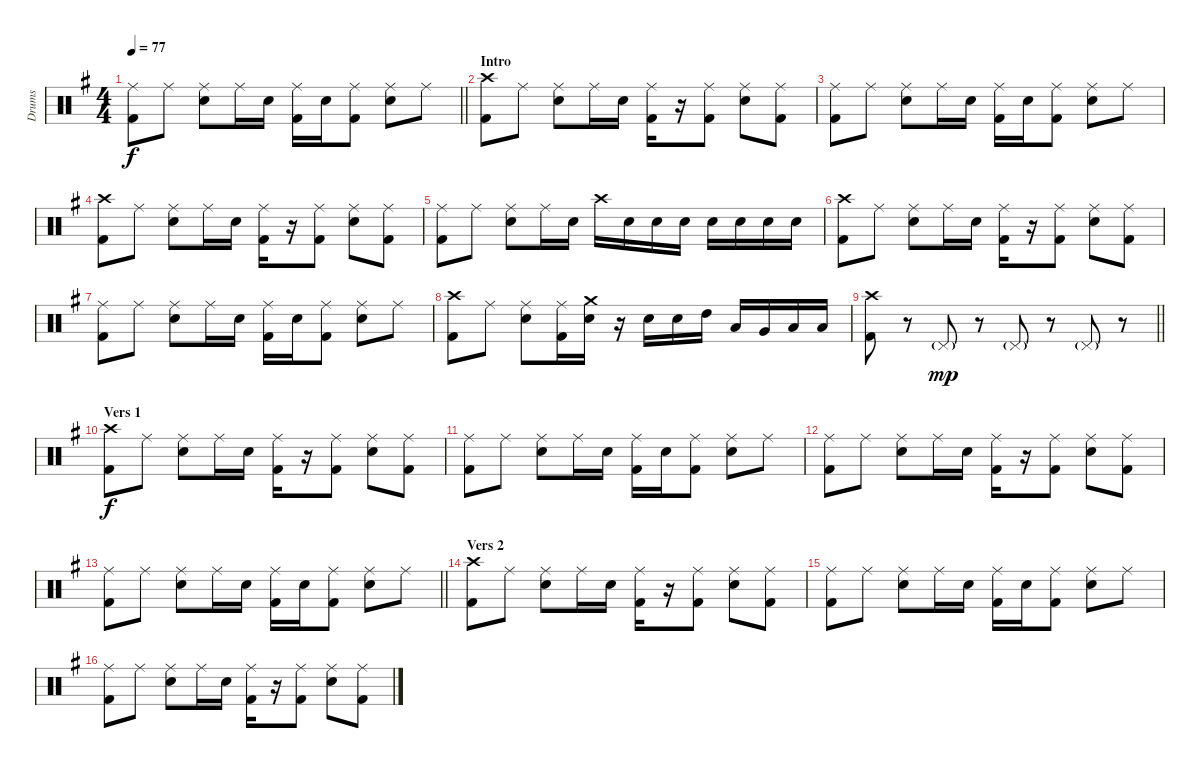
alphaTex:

\track ("Drums" "Drums") {instrument percussion}
\staff {score}
\articulation defaults
\ts (4 4)
\section ("" "")
\tempo 77
\clef neutral
\barLineRight lightlight
\ks eminor
("Ride (middle)" "Kick (hit) 2").8{dy f} "Ride (middle)".8 ("Ride (middle)" "Electric Snare (hit)").8 "Ride (middle)".16 "Electric Snare (hit)".16 ("Ride (middle)" "Kick (hit) 2").16 "Electric Snare (hit)".16 ("Ride (middle)" "Kick (hit) 2").8 ("Ride (middle)" "Electric Snare (hit)").8 "Ride (middle)".8 |
\section ("" "Intro")
("Crash high (hit)" "Kick (hit) 2").8 "Ride (middle)".8 ("Ride (middle)" "Electric Snare (hit)").8 "Ride (middle)".16 "Electric Snare (hit)".16 ("Ride (middle)" "Kick (hit) 2").16 r.16 ("Ride (middle)" "Kick (hit) 2").8 ("Ride (middle)" "Electric Snare (hit)").8 ("Ride (middle)" "Kick (hit) 2").8 |
("Ride (middle)" "Kick (hit) 2").8 "Ride (middle)".8 ("Ride (middle)" "Electric Snare (hit)").8 "Ride (middle)".16 "Electric Snare (hit)".16 ("Ride (middle)" "Kick (hit) 2").16 "Electric Snare (hit)".16 ("Ride (middle)" "Kick (hit) 2").8 ("Ride (middle)" "Electric Snare (hit)").8 "Ride (middle)".8 |
("Crash high (hit)" "Kick (hit) 2").8 "Ride (middle)".8 ("Ride (middle)" "Electric Snare (hit)").8 "Ride (middle)".16 "Electric Snare (hit)".16 ("Ride (middle)" "Kick (hit) 2").16 r.16 ("Ride (middle)" "Kick (hit) 2").8 ("Ride (middle)" "Electric Snare (hit)").8 ("Ride (middle)" "Kick (hit) 2").8 |
("Ride (middle)" "Kick (hit) 2").8 "Ride (middle)".8 ("Ride (middle)" "Electric Snare (hit)").8 "Ride (middle)".16 "Electric Snare (hit)".16 "Crash high (hit)".16 "Electric Snare (hit)".16 "Electric Snare (hit)".16 "Electric Snare (hit)".16 "Electric Snare (hit)".16 "Electric Snare (hit)".16 "Electric Snare (hit)".16 "Electric Snare (hit)".16 |
("Crash high (hit)" "Kick (hit) 2").8 "Ride (middle)".8 ("Ride (middle)" "Electric Snare (hit)").8 "Ride (middle)".16 "Electric Snare (hit)".16 ("Ride (middle)" "Kick (hit) 2").16 r.16 ("Ride (middle)" "Kick (hit) 2").8 ("Ride (middle)" "Electric Snare (hit)").8 ("Ride (middle)" "Kick (hit) 2").8 |
("Ride (middle)" "Kick (hit) 2").8 "Ride (middle)".8 ("Ride (middle)" "Electric Snare (hit)").8 "Ride (middle)".16 "Electric Snare (hit)".16 ("Ride (middle)" "Kick (hit) 2").16 "Electric Snare (hit)".16 ("Ride (middle)" "Kick (hit) 2").8 ("Ride (middle)" "Electric Snare (hit)").8 "Ride (middle)".8 |
("Crash high (hit)" "Kick (hit) 2").8 "Ride (middle)".8 ("Ride (middle)" "Electric Snare (hit)").8 ("Ride (middle)" "Kick (hit) 2").16 ("Crash medium (hit)" "Electric Snare (hit)").16 r.16 "Electric Snare (hit)".16 "Electric Snare (hit)".16 "High Tom (hit)".16 "Low Tom (hit)".16 "Very Low Tom (hit)".16 "Low Floor Tom (hit)".16 "Low Floor Tom (hit)".16 |
\barLineRight lightlight
("Crash high (hit)" "Kick (hit) 2").8 r.8 "Pedal Hi-Hat (hit)"{g}.8{dy mp} r.8 "Pedal Hi-Hat (hit)"{g}.8 r.8 "Pedal Hi-Hat (hit)"{g}.8 r.8 |
\section ("" "Vers 1")
("Crash high (hit)" "Kick (hit) 2").8{dy f} "Ride (middle)".8 ("Ride (middle)" "Electric Snare (hit)").8 "Ride (middle)".16 "Electric Snare (hit)".16 ("Ride (middle)" "Kick (hit) 2").16 r.16 ("Ride (middle)" "Kick (hit) 2").8 ("Ride (middle)" "Electric Snare (hit)").8 ("Ride (middle)" "Kick (hit) 2").8 |
("Ride (middle)" "Kick (hit) 2").8 "Ride (middle)".8 ("Ride (middle)" "Electric Snare (hit)").8 "Ride (middle)".16 "Electric Snare (hit)".16 ("Ride (middle)" "Kick (hit) 2").16 "Electric Snare (hit)".16 ("Ride (middle)" "Kick (hit) 2").8 ("Ride (middle)" "Electric Snare (hit)").8 "Ride (middle)".8 |
("Ride (middle)" "Kick (hit) 2").8 "Ride (middle)".8 ("Ride (middle)" "Electric Snare (hit)").8 "Ride (middle)".16 "Electric Snare (hit)".16 ("Ride (middle)" "Kick (hit) 2").16 r.16 ("Ride (middle)" "Kick (hit) 2").8 ("Ride (middle)" "Electric Snare (hit)").8 ("Ride (middle)" "Kick (hit) 2").8 |
\barLineRight lightlight
("Ride (middle)" "Kick (hit) 2").8 "Ride (middle)".8 ("Ride (middle)" "Electric Snare (hit)").8 "Ride (middle)".16 "Electric Snare (hit)".16 ("Ride (middle)" "Kick (hit) 2").16 "Electric Snare (hit)".16 ("Ride (middle)" "Kick (hit) 2").8 ("Ride (middle)" "Electric Snare (hit)").8 "Ride (middle)".8 |
\section ("" "Vers 2")
("Crash high (hit)" "Kick (hit) 2").8 "Ride (middle)".8 ("Ride (middle)" "Electric Snare (hit)").8 "Ride (middle)".16 "Electric Snare (hit)".16 ("Ride (middle)" "Kick (hit) 2").16 r.16 ("Ride (middle)" "Kick (hit) 2").8 ("Ride (middle)" "Electric Snare (hit)").8 ("Ride (middle)" "Kick (hit) 2").8 |
("Ride (middle)" "Kick (hit) 2").8 "Ride (middle)".8 ("Ride (middle)" "Electric Snare (hit)").8 "Ride (middle)".16 "Electric Snare (hit)".16 ("Ride (middle)" "Kick (hit) 2").16 "Electric Snare (hit)".16 ("Ride (middle)" "Kick (hit) 2").8 ("Ride (middle)" "Electric Snare (hit)").8 "Ride (middle)".8 |
("Ride (middle)" "Kick (hit) 2").8 "Ride (middle)".8 ("Ride (middle)" "Electric Snare (hit)").8 "Ride (middle)".16 "Electric Snare (hit)".16 ("Ride (middle)" "Kick (hit) 2").16 r.16 ("Ride (middle)" "Kick (hit) 2").8 ("Ride (middle)" "Electric Snare (hit)").8 ("Ride (middle)" "Kick (hit) 2").8
